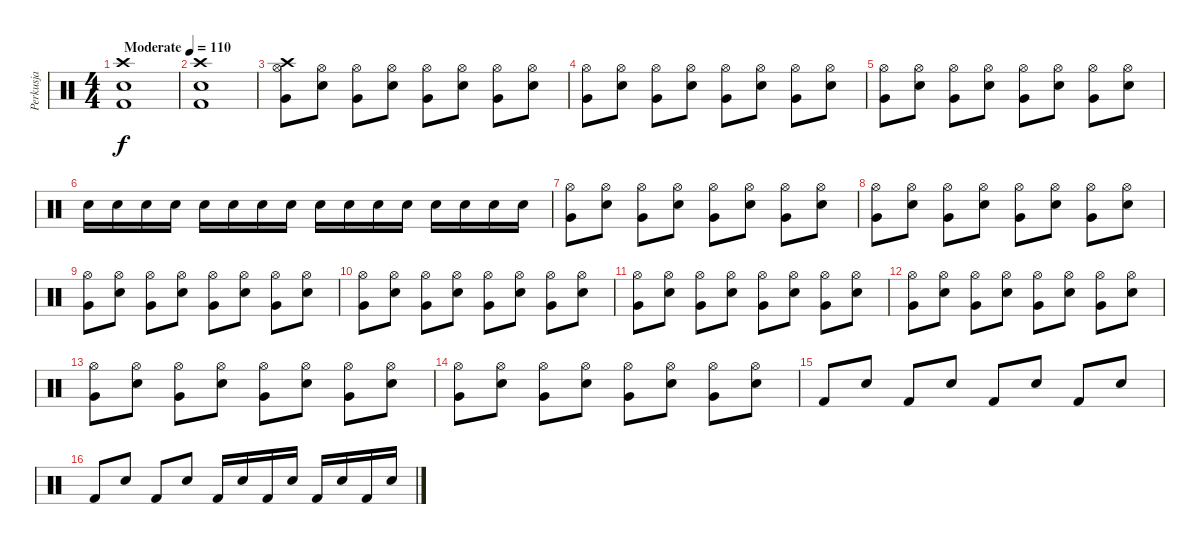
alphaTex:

\track ("Perkusja" "Perkusja") {instrument percussion}
\staff {score}
\articulation defaults
\ts (4 4)
\tempo (110 "Moderate")
\clef neutral
\ks c
("Crash high (hit)" "Snare (hit) 2" "Kick (hit) 2").1{dy f} |
("Crash high (hit)" "Snare (hit) 2" "Kick (hit) 2").1 |
("Crash high (hit)" "Hi-Hat (open)" "Very Low Tom (hit)").8 ("Hi-Hat (open)" "Electric Snare (hit)").8 ("Hi-Hat (open)" "Very Low Tom (hit)").8 ("Hi-Hat (open)" "Electric Snare (hit)").8 ("Hi-Hat (open)" "Very Low Tom (hit)").8 ("Hi-Hat (open)" "Electric Snare (hit)").8 ("Hi-Hat (open)" "Very Low Tom (hit)").8 ("Hi-Hat (open)" "Electric Snare (hit)").8 |
("Hi-Hat (open)" "Very Low Tom (hit)").8 ("Hi-Hat (open)" "Electric Snare (hit)").8 ("Hi-Hat (open)" "Very Low Tom (hit)").8 ("Hi-Hat (open)" "Electric Snare (hit)").8 ("Hi-Hat (open)" "Very Low Tom (hit)").8 ("Hi-Hat (open)" "Electric Snare (hit)").8 ("Hi-Hat (open)" "Very Low Tom (hit)").8 ("Hi-Hat (open)" "Electric Snare (hit)").8 |
("Hi-Hat (open)" "Very Low Tom (hit)").8 ("Hi-Hat (open)" "Electric Snare (hit)").8 ("Hi-Hat (open)" "Very Low Tom (hit)").8 ("Hi-Hat (open)" "Electric Snare (hit)").8 ("Hi-Hat (open)" "Very Low Tom (hit)").8 ("Hi-Hat (open)" "Electric Snare (hit)").8 ("Hi-Hat (open)" "Very Low Tom (hit)").8 ("Hi-Hat (open)" "Electric Snare (hit)").8 |
"Electric Snare (hit)".16 "Electric Snare (hit)".16 "Electric Snare (hit)".16 "Electric Snare (hit)".16 "Electric Snare (hit)".16 "Electric Snare (hit)".16 "Electric Snare (hit)".16 "Electric Snare (hit)".16 "Electric Snare (hit)".16 "Electric Snare (hit)".16 "Electric Snare (hit)".16 "Electric Snare (hit)".16 "Electric Snare (hit)".16 "Electric Snare (hit)".16 "Electric Snare (hit)".16 "Electric Snare (hit)".16 |
("Hi-Hat (open)" "Very Low Tom (hit)").8 ("Hi-Hat (open)" "Electric Snare (hit)").8 ("Hi-Hat (open)" "Very Low Tom (hit)").8 ("Hi-Hat (open)" "Electric Snare (hit)").8 ("Hi-Hat (open)" "Very Low Tom (hit)").8 ("Hi-Hat (open)" "Electric Snare (hit)").8 ("Hi-Hat (open)" "Very Low Tom (hit)").8 ("Hi-Hat (open)" "Electric Snare (hit)").8 |
("Hi-Hat (open)" "Very Low Tom (hit)").8 ("Hi-Hat (open)" "Electric Snare (hit)").8 ("Hi-Hat (open)" "Very Low Tom (hit)").8 ("Hi-Hat (open)" "Electric Snare (hit)").8 ("Hi-Hat (open)" "Very Low Tom (hit)").8 ("Hi-Hat (open)" "Electric Snare (hit)").8 ("Hi-Hat (open)" "Very Low Tom (hit)").8 ("Hi-Hat (open)" "Electric Snare (hit)").8 |
("Hi-Hat (open)" "Very Low Tom (hit)").8 ("Hi-Hat (open)" "Electric Snare (hit)").8 ("Hi-Hat (open)" "Very Low Tom (hit)").8 ("Hi-Hat (open)" "Electric Snare (hit)").8 ("Hi-Hat (open)" "Very Low Tom (hit)").8 ("Hi-Hat (open)" "Electric Snare (hit)").8 ("Hi-Hat (open)" "Very Low Tom (hit)").8 ("Hi-Hat (open)" "Electric Snare (hit)").8 |
("Hi-Hat (open)" "Very Low Tom (hit)").8 ("Hi-Hat (open)" "Electric Snare (hit)").8 ("Hi-Hat (open)" "Very Low Tom (hit)").8 ("Hi-Hat (open)" "Electric Snare (hit)").8 ("Hi-Hat (open)" "Very Low Tom (hit)").8 ("Hi-Hat (open)" "Electric Snare (hit)").8 ("Hi-Hat (open)" "Very Low Tom (hit)").8 ("Hi-Hat (open)" "Electric Snare (hit)").8 |
("Hi-Hat (open)" "Very Low Tom (hit)").8 ("Hi-Hat (open)" "Electric Snare (hit)").8 ("Hi-Hat (open)" "Very Low Tom (hit)").8 ("Hi-Hat (open)" "Electric Snare (hit)").8 ("Hi-Hat (open)" "Very Low Tom (hit)").8 ("Hi-Hat (open)" "Electric Snare (hit)").8 ("Hi-Hat (open)" "Very Low Tom (hit)").8 ("Hi-Hat (open)" "Electric Snare (hit)").8 |
("Hi-Hat (open)" "Very Low Tom (hit)").8 ("Hi-Hat (open)" "Electric Snare (hit)").8 ("Hi-Hat (open)" "Very Low Tom (hit)").8 ("Hi-Hat (open)" "Electric Snare (hit)").8 ("Hi-Hat (open)" "Very Low Tom (hit)").8 ("Hi-Hat (open)" "Electric Snare (hit)").8 ("Hi-Hat (open)" "Very Low Tom (hit)").8 ("Hi-Hat (open)" "Electric Snare (hit)").8 |
("Hi-Hat (open)" "Very Low Tom (hit)").8 ("Hi-Hat (open)" "Electric Snare (hit)").8 ("Hi-Hat (open)" "Very Low Tom (hit)").8 ("Hi-Hat (open)" "Electric Snare (hit)").8 ("Hi-Hat (open)" "Very Low Tom (hit)").8 ("Hi-Hat (open)" "Electric Snare (hit)").8 ("Hi-Hat (open)" "Very Low Tom (hit)").8 ("Hi-Hat (open)" "Electric Snare (hit)").8 |
("Hi-Hat (open)" "Very Low Tom (hit)").8 ("Hi-Hat (open)" "Electric Snare (hit)").8 ("Hi-Hat (open)" "Very Low Tom (hit)").8 ("Hi-Hat (open)" "Electric Snare (hit)").8 ("Hi-Hat (open)" "Very Low Tom (hit)").8 ("Hi-Hat (open)" "Electric Snare (hit)").8 ("Hi-Hat (open)" "Very Low Tom (hit)").8 ("Hi-Hat (open)" "Electric Snare (hit)").8 |
"Kick (hit) 2".8 "Electric Snare (hit)".8 "Kick (hit) 2".8 "Electric Snare (hit)".8 "Kick (hit) 2".8 "Electric Snare (hit)".8 "Kick (hit) 2".8 "Electric Snare (hit)".8 |
"Kick (hit) 2".8 "Electric Snare (hit)".8 "Kick (hit) 2".8 "Electric Snare (hit)".8 "Kick (hit) 2".16 "Electric Snare (hit)".16 "Kick (hit) 2".16 "Electric Snare (hit)".16 "Kick (hit) 2".16 "Electric Snare (hit)".16 "Kick (hit) 2".16 "Electric Snare (hit)".16
